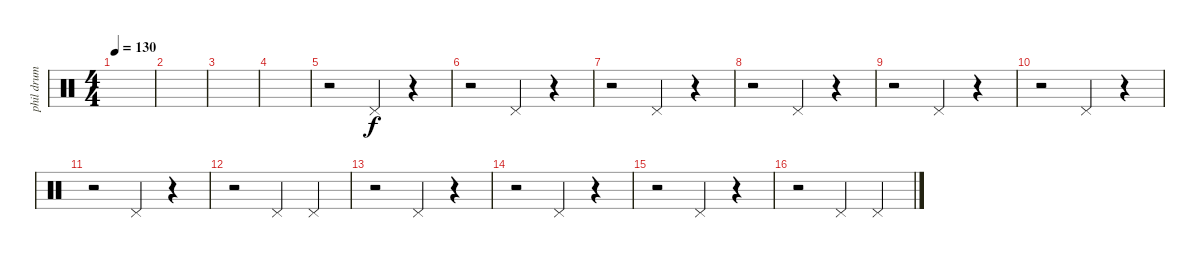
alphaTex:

\track ("phil drum" "phil drum") {instrument percussion}
\staff {score}
\articulation defaults
\ts (4 4)
\tempo 130
\clef neutral
\ks c
|
|
|
|
r.2 "Pedal Hi-Hat (hit)".4 r.4 |
r.2 "Pedal Hi-Hat (hit)".4 r.4 |
r.2 "Pedal Hi-Hat (hit)".4 r.4 |
r.2 "Pedal Hi-Hat (hit)".4 r.4 |
r.2 "Pedal Hi-Hat (hit)".4 r.4 |
r.2 "Pedal Hi-Hat (hit)".4 r.4 |
r.2 "Pedal Hi-Hat (hit)".4 r.4 |
r.2 "Pedal Hi-Hat (hit)".4 "Pedal Hi-Hat (hit)".4 |
r.2 "Pedal Hi-Hat (hit)".4 r.4 |
r.2 "Pedal Hi-Hat (hit)".4 r.4 |
r.2 "Pedal Hi-Hat (hit)".4 r.4 |
r.2 "Pedal Hi-Hat (hit)".4 "Pedal Hi-Hat (hit)".4
